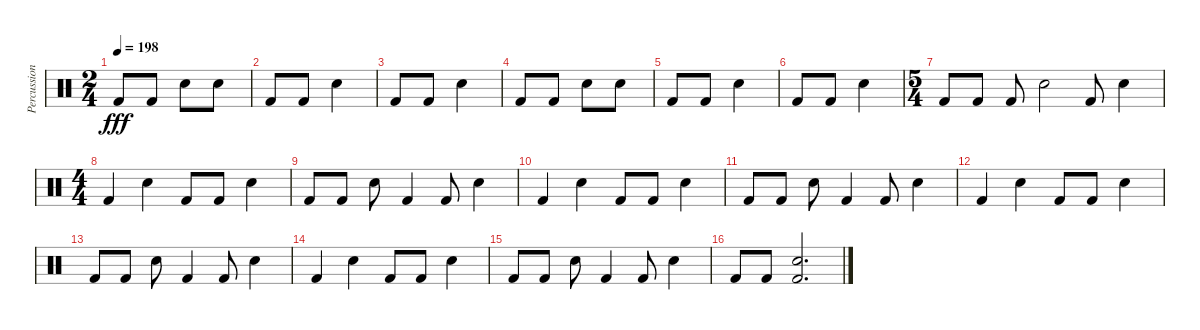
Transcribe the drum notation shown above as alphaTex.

\track ("Percussion" "Percussion") {instrument percussion}
\staff {score}
\articulation defaults
\ts (2 4)
\tempo 198
\clef neutral
\ks c "Kick (hit) 2".8{dy fff} "Kick (hit) 2".8 "Electric Snare (hit)".8 "Electric Snare (hit)".8
|
"Kick (hit) 2".8 "Kick (hit) 2".8 "Electric Snare (hit)".4 |
"Kick (hit) 2".8 "Kick (hit) 2".8 "Electric Snare (hit)".4 |
"Kick (hit) 2".8 "Kick (hit) 2".8 "Electric Snare (hit)".8 "Electric Snare (hit)".8 |
"Kick (hit) 2".8 "Kick (hit) 2".8 "Electric Snare (hit)".4 |
"Kick (hit) 2".8 "Kick (hit) 2".8 "Electric Snare (hit)".4 |
\ts (5 4)
"Kick (hit) 2".8 "Kick (hit) 2".8 "Kick (hit) 2".8 "Electric Snare (hit)".2 "Kick (hit) 2".8 "Electric Snare (hit)".4 |
\ts (4 4)
"Kick (hit) 2".4 "Electric Snare (hit)".4 "Kick (hit) 2".8 "Kick (hit) 2".8 "Electric Snare (hit)".4 |
"Kick (hit) 2".8 "Kick (hit) 2".8 "Electric Snare (hit)".8 "Kick (hit) 2".4 "Kick (hit) 2".8 "Electric Snare (hit)".4 |
"Kick (hit) 2".4 "Electric Snare (hit)".4 "Kick (hit) 2".8 "Kick (hit) 2".8 "Electric Snare (hit)".4 |
"Kick (hit) 2".8 "Kick (hit) 2".8 "Electric Snare (hit)".8 "Kick (hit) 2".4 "Kick (hit) 2".8 "Electric Snare (hit)".4 |
"Kick (hit) 2".4 "Electric Snare (hit)".4 "Kick (hit) 2".8 "Kick (hit) 2".8 "Electric Snare (hit)".4 |
"Kick (hit) 2".8 "Kick (hit) 2".8 "Electric Snare (hit)".8 "Kick (hit) 2".4 "Kick (hit) 2".8 "Electric Snare (hit)".4 |
"Kick (hit) 2".4 "Electric Snare (hit)".4 "Kick (hit) 2".8 "Kick (hit) 2".8 "Electric Snare (hit)".4 |
"Kick (hit) 2".8 "Kick (hit) 2".8 "Electric Snare (hit)".8 "Kick (hit) 2".4 "Kick (hit) 2".8 "Electric Snare (hit)".4 |
"Kick (hit) 2".8 "Kick (hit) 2".8 ("Electric Snare (hit)" "Kick (hit) 2").2{d}
